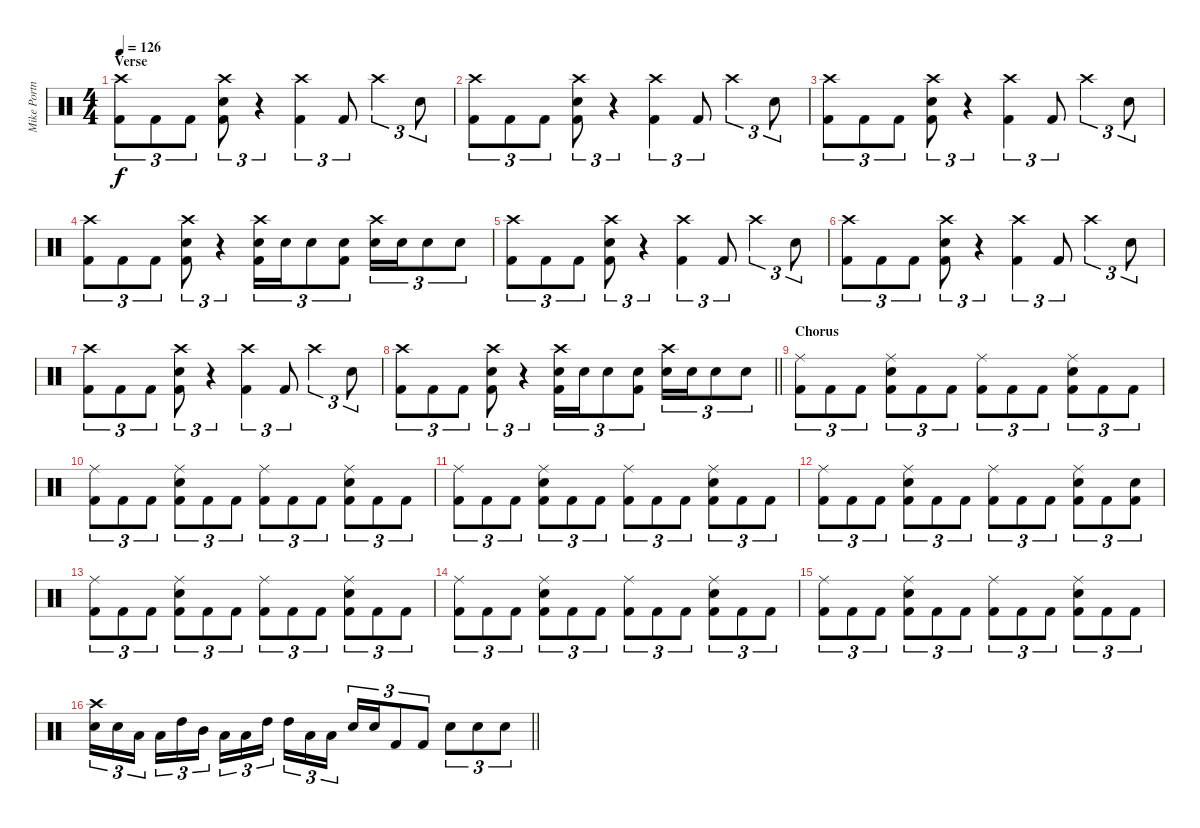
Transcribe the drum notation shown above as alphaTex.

\track ("Mike Portnoy" "Mike Portn") {instrument percussion}
\staff {score}
\articulation defaults
\ts (4 4)
\section ("" "Verse")
\tempo 126
\clef neutral
\ks c
("Crash high (hit)" "Kick (hit) 2").8{tu (3 2) dy f} "Kick (hit) 2".8{tu (3 2)} "Kick (hit) 2".8{tu (3 2)} ("Crash high (hit)" "Electric Snare (hit)" "Kick (hit) 2").8{tu (3 2)} r.4{tu (3 2)} ("Crash high (hit)" "Kick (hit) 2").4{tu (3 2)} "Kick (hit) 2".8{tu (3 2)} "Crash high (hit)".4{tu (3 2)} "Electric Snare (hit)".8{tu (3 2)} |
("Crash high (hit)" "Kick (hit) 2").8{tu (3 2)} "Kick (hit) 2".8{tu (3 2)} "Kick (hit) 2".8{tu (3 2)} ("Crash high (hit)" "Electric Snare (hit)" "Kick (hit) 2").8{tu (3 2)} r.4{tu (3 2)} ("Crash high (hit)" "Kick (hit) 2").4{tu (3 2)} "Kick (hit) 2".8{tu (3 2)} "Crash high (hit)".4{tu (3 2)} "Electric Snare (hit)".8{tu (3 2)} |
("Crash high (hit)" "Kick (hit) 2").8{tu (3 2)} "Kick (hit) 2".8{tu (3 2)} "Kick (hit) 2".8{tu (3 2)} ("Crash high (hit)" "Electric Snare (hit)" "Kick (hit) 2").8{tu (3 2)} r.4{tu (3 2)} ("Crash high (hit)" "Kick (hit) 2").4{tu (3 2)} "Kick (hit) 2".8{tu (3 2)} "Crash high (hit)".4{tu (3 2)} "Electric Snare (hit)".8{tu (3 2)} |
("Crash high (hit)" "Kick (hit) 2").8{tu (3 2)} "Kick (hit) 2".8{tu (3 2)} "Kick (hit) 2".8{tu (3 2)} ("Crash high (hit)" "Electric Snare (hit)" "Kick (hit) 2").8{tu (3 2)} r.4{tu (3 2)} ("Crash high (hit)" "Electric Snare (hit)" "Kick (hit) 2").16{tu (3 2)} "Electric Snare (hit)".16{tu (3 2)} "Electric Snare (hit)".8{tu (3 2)} ("Electric Snare (hit)" "Kick (hit) 2").8{tu (3 2)} ("Crash high (hit)" "Electric Snare (hit)").16{tu (3 2)} "Electric Snare (hit)".16{tu (3 2)} "Electric Snare (hit)".8{tu (3 2)} "Electric Snare (hit)".8{tu (3 2)} |
("Crash high (hit)" "Kick (hit) 2").8{tu (3 2)} "Kick (hit) 2".8{tu (3 2)} "Kick (hit) 2".8{tu (3 2)} ("Crash high (hit)" "Electric Snare (hit)" "Kick (hit) 2").8{tu (3 2)} r.4{tu (3 2)} ("Crash high (hit)" "Kick (hit) 2").4{tu (3 2)} "Kick (hit) 2".8{tu (3 2)} "Crash high (hit)".4{tu (3 2)} "Electric Snare (hit)".8{tu (3 2)} |
("Crash high (hit)" "Kick (hit) 2").8{tu (3 2)} "Kick (hit) 2".8{tu (3 2)} "Kick (hit) 2".8{tu (3 2)} ("Crash high (hit)" "Electric Snare (hit)" "Kick (hit) 2").8{tu (3 2)} r.4{tu (3 2)} ("Crash high (hit)" "Kick (hit) 2").4{tu (3 2)} "Kick (hit) 2".8{tu (3 2)} "Crash high (hit)".4{tu (3 2)} "Electric Snare (hit)".8{tu (3 2)} |
("Crash high (hit)" "Kick (hit) 2").8{tu (3 2)} "Kick (hit) 2".8{tu (3 2)} "Kick (hit) 2".8{tu (3 2)} ("Crash high (hit)" "Electric Snare (hit)" "Kick (hit) 2").8{tu (3 2)} r.4{tu (3 2)} ("Crash high (hit)" "Kick (hit) 2").4{tu (3 2)} "Kick (hit) 2".8{tu (3 2)} "Crash high (hit)".4{tu (3 2)} "Electric Snare (hit)".8{tu (3 2)} |
\barLineRight lightlight
("Crash high (hit)" "Kick (hit) 2").8{tu (3 2)} "Kick (hit) 2".8{tu (3 2)} "Kick (hit) 2".8{tu (3 2)} ("Crash high (hit)" "Electric Snare (hit)" "Kick (hit) 2").8{tu (3 2)} r.4{tu (3 2)} ("Crash high (hit)" "Electric Snare (hit)" "Kick (hit) 2").16{tu (3 2)} "Electric Snare (hit)".16{tu (3 2)} "Electric Snare (hit)".8{tu (3 2)} ("Electric Snare (hit)" "Kick (hit) 2").8{tu (3 2)} ("Crash high (hit)" "Electric Snare (hit)").16{tu (3 2)} "Electric Snare (hit)".16{tu (3 2)} "Electric Snare (hit)".8{tu (3 2)} "Electric Snare (hit)".8{tu (3 2)} |
\section ("" "Chorus")
("Ride (middle)" "Kick (hit) 2").8{tu (3 2)} "Kick (hit) 2".8{tu (3 2)} "Kick (hit) 2".8{tu (3 2)} ("Ride (middle)" "Electric Snare (hit)" "Kick (hit) 2").8{tu (3 2)} "Kick (hit) 2".8{tu (3 2)} "Kick (hit) 2".8{tu (3 2)} ("Ride (middle)" "Kick (hit) 2").8{tu (3 2)} "Kick (hit) 2".8{tu (3 2)} "Kick (hit) 2".8{tu (3 2)} ("Ride (middle)" "Electric Snare (hit)" "Kick (hit) 2").8{tu (3 2)} "Kick (hit) 2".8{tu (3 2)} "Kick (hit) 2".8{tu (3 2)} |
("Ride (middle)" "Kick (hit) 2").8{tu (3 2)} "Kick (hit) 2".8{tu (3 2)} "Kick (hit) 2".8{tu (3 2)} ("Ride (middle)" "Electric Snare (hit)" "Kick (hit) 2").8{tu (3 2)} "Kick (hit) 2".8{tu (3 2)} "Kick (hit) 2".8{tu (3 2)} ("Ride (middle)" "Kick (hit) 2").8{tu (3 2)} "Kick (hit) 2".8{tu (3 2)} "Kick (hit) 2".8{tu (3 2)} ("Ride (middle)" "Electric Snare (hit)" "Kick (hit) 2").8{tu (3 2)} "Kick (hit) 2".8{tu (3 2)} "Kick (hit) 2".8{tu (3 2)} |
("Ride (middle)" "Kick (hit) 2").8{tu (3 2)} "Kick (hit) 2".8{tu (3 2)} "Kick (hit) 2".8{tu (3 2)} ("Ride (middle)" "Electric Snare (hit)" "Kick (hit) 2").8{tu (3 2)} "Kick (hit) 2".8{tu (3 2)} "Kick (hit) 2".8{tu (3 2)} ("Ride (middle)" "Kick (hit) 2").8{tu (3 2)} "Kick (hit) 2".8{tu (3 2)} "Kick (hit) 2".8{tu (3 2)} ("Ride (middle)" "Electric Snare (hit)" "Kick (hit) 2").8{tu (3 2)} "Kick (hit) 2".8{tu (3 2)} "Kick (hit) 2".8{tu (3 2)} |
("Ride (middle)" "Kick (hit) 2").8{tu (3 2)} "Kick (hit) 2".8{tu (3 2)} "Kick (hit) 2".8{tu (3 2)} ("Ride (middle)" "Electric Snare (hit)" "Kick (hit) 2").8{tu (3 2)} "Kick (hit) 2".8{tu (3 2)} "Kick (hit) 2".8{tu (3 2)} ("Ride (middle)" "Kick (hit) 2").8{tu (3 2)} "Kick (hit) 2".8{tu (3 2)} "Kick (hit) 2".8{tu (3 2)} ("Ride (middle)" "Electric Snare (hit)" "Kick (hit) 2").8{tu (3 2)} "Kick (hit) 2".8{tu (3 2)} ("Electric Snare (hit)" "Kick (hit) 2").8{tu (3 2)} |
("Ride (middle)" "Kick (hit) 2").8{tu (3 2)} "Kick (hit) 2".8{tu (3 2)} "Kick (hit) 2".8{tu (3 2)} ("Ride (middle)" "Electric Snare (hit)" "Kick (hit) 2").8{tu (3 2)} "Kick (hit) 2".8{tu (3 2)} "Kick (hit) 2".8{tu (3 2)} ("Ride (middle)" "Kick (hit) 2").8{tu (3 2)} "Kick (hit) 2".8{tu (3 2)} "Kick (hit) 2".8{tu (3 2)} ("Ride (middle)" "Electric Snare (hit)" "Kick (hit) 2").8{tu (3 2)} "Kick (hit) 2".8{tu (3 2)} "Kick (hit) 2".8{tu (3 2)} |
("Ride (middle)" "Kick (hit) 2").8{tu (3 2)} "Kick (hit) 2".8{tu (3 2)} "Kick (hit) 2".8{tu (3 2)} ("Ride (middle)" "Electric Snare (hit)" "Kick (hit) 2").8{tu (3 2)} "Kick (hit) 2".8{tu (3 2)} "Kick (hit) 2".8{tu (3 2)} ("Ride (middle)" "Kick (hit) 2").8{tu (3 2)} "Kick (hit) 2".8{tu (3 2)} "Kick (hit) 2".8{tu (3 2)} ("Ride (middle)" "Electric Snare (hit)" "Kick (hit) 2").8{tu (3 2)} "Kick (hit) 2".8{tu (3 2)} "Kick (hit) 2".8{tu (3 2)} |
("Ride (middle)" "Kick (hit) 2").8{tu (3 2)} "Kick (hit) 2".8{tu (3 2)} "Kick (hit) 2".8{tu (3 2)} ("Ride (middle)" "Electric Snare (hit)" "Kick (hit) 2").8{tu (3 2)} "Kick (hit) 2".8{tu (3 2)} "Kick (hit) 2".8{tu (3 2)} ("Ride (middle)" "Kick (hit) 2").8{tu (3 2)} "Kick (hit) 2".8{tu (3 2)} "Kick (hit) 2".8{tu (3 2)} ("Ride (middle)" "Electric Snare (hit)" "Kick (hit) 2").8{tu (3 2)} "Kick (hit) 2".8{tu (3 2)} "Kick (hit) 2".8{tu (3 2)} |
\barLineRight lightlight
("Crash high (hit)" "Electric Snare (hit)").16{tu (3 2)} "Electric Snare (hit)".16{tu (3 2)} "Low Tom (hit)".16{tu (3 2) beam splitsecondary} "Low Tom (hit)".16{tu (3 2)} "High Tom (hit)".16{tu (3 2)} "Mid Tom (hit)".16{tu (3 2)} "Low Tom (hit)".16{tu (3 2)} "Low Tom (hit)".16{tu (3 2)} "High Tom (hit)".16{tu (3 2) beam splitsecondary} "High Tom (hit)".16{tu (3 2)} "Low Tom (hit)".16{tu (3 2)} "Low Tom (hit)".16{tu (3 2)} "Electric Snare (hit)".16{tu (3 2)} "Electric Snare (hit)".16{tu (3 2)} "Kick (hit) 2".8{tu (3 2)} "Kick (hit) 2".8{tu (3 2)} "Electric Snare (hit)".8{tu (3 2)} "Electric Snare (hit)".8{tu (3 2)} "Electric Snare (hit)".8{tu (3 2)}
